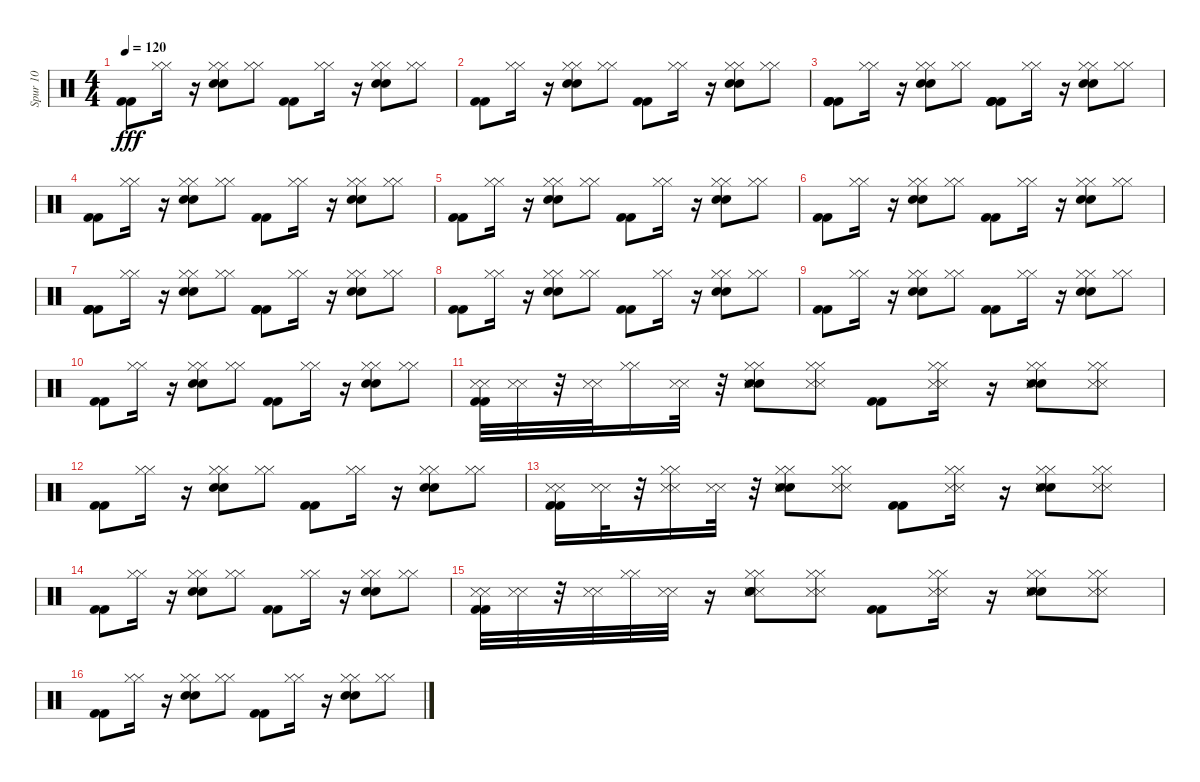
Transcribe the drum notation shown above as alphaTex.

\track ("Spur 10" "Spur 10") {instrument percussion}
\staff {score}
\articulation defaults
\ts (4 4)
\tempo 120
\clef neutral
\ks c
("Kick (hit) 2" "Kick (hit) 2").8{dy fff} ("Hi-Hat (closed)" "Hi-Hat (closed)").16 r.16 ("Hi-Hat (closed)" "Snare (hit) 2" "Hi-Hat (closed)" "Snare (hit) 2").8 ("Hi-Hat (closed)" "Hi-Hat (closed)").8 ("Kick (hit) 2" "Kick (hit) 2").8 ("Hi-Hat (closed)" "Hi-Hat (closed)").16 r.16 ("Snare (hit) 2" "Snare (hit) 2" "Hi-Hat (closed)" "Hi-Hat (closed)").8 ("Hi-Hat (closed)" "Hi-Hat (closed)").8 |
("Kick (hit) 2" "Kick (hit) 2").8 ("Hi-Hat (closed)" "Hi-Hat (closed)").16 r.16 ("Hi-Hat (closed)" "Snare (hit) 2" "Hi-Hat (closed)" "Snare (hit) 2").8 ("Hi-Hat (closed)" "Hi-Hat (closed)").8 ("Kick (hit) 2" "Kick (hit) 2").8 ("Hi-Hat (closed)" "Hi-Hat (closed)").16 r.16 ("Snare (hit) 2" "Snare (hit) 2" "Hi-Hat (closed)" "Hi-Hat (closed)").8 ("Hi-Hat (closed)" "Hi-Hat (closed)").8 |
("Kick (hit) 2" "Kick (hit) 2" "Kick (hit) 2" "Kick (hit) 2").8 ("Hi-Hat (closed)" "Hi-Hat (closed)").16 r.16 ("Hi-Hat (closed)" "Hi-Hat (closed)" "Snare (hit) 2" "Snare (hit) 2").8 ("Hi-Hat (closed)" "Hi-Hat (closed)").8 ("Kick (hit) 2" "Kick (hit) 2" "Kick (hit) 2" "Kick (hit) 2").8 ("Hi-Hat (closed)" "Hi-Hat (closed)").16 r.16 ("Hi-Hat (closed)" "Hi-Hat (closed)" "Snare (hit) 2" "Snare (hit) 2").8 ("Hi-Hat (closed)" "Hi-Hat (closed)").8 |
("Kick (hit) 2" "Kick (hit) 2").8 ("Hi-Hat (closed)" "Hi-Hat (closed)").16 r.16 ("Hi-Hat (closed)" "Snare (hit) 2" "Hi-Hat (closed)" "Snare (hit) 2").8 ("Hi-Hat (closed)" "Hi-Hat (closed)").8 ("Kick (hit) 2" "Kick (hit) 2").8 ("Hi-Hat (closed)" "Hi-Hat (closed)").16 r.16 ("Snare (hit) 2" "Hi-Hat (closed)" "Snare (hit) 2" "Hi-Hat (closed)").8 ("Hi-Hat (closed)" "Hi-Hat (closed)").8 |
("Kick (hit) 2" "Kick (hit) 2").8 ("Hi-Hat (closed)" "Hi-Hat (closed)").16 r.16 ("Hi-Hat (closed)" "Snare (hit) 2" "Hi-Hat (closed)" "Snare (hit) 2").8 ("Hi-Hat (closed)" "Hi-Hat (closed)").8 ("Kick (hit) 2" "Kick (hit) 2").8 ("Hi-Hat (closed)" "Hi-Hat (closed)").16 r.16 ("Hi-Hat (closed)" "Snare (hit) 2" "Hi-Hat (closed)" "Snare (hit) 2").8 ("Hi-Hat (closed)" "Hi-Hat (closed)").8 |
("Kick (hit) 2" "Kick (hit) 2").8 ("Hi-Hat (closed)" "Hi-Hat (closed)").16 r.16 ("Snare (hit) 2" "Snare (hit) 2" "Hi-Hat (closed)" "Hi-Hat (closed)").8 ("Hi-Hat (closed)" "Hi-Hat (closed)").8 ("Kick (hit) 2" "Kick (hit) 2").8 ("Hi-Hat (closed)" "Hi-Hat (closed)").16 r.16 ("Snare (hit) 2" "Hi-Hat (closed)" "Snare (hit) 2" "Hi-Hat (closed)").8 ("Hi-Hat (closed)" "Hi-Hat (closed)").8 |
("Kick (hit) 2" "Kick (hit) 2" "Kick (hit) 2" "Kick (hit) 2").8 ("Hi-Hat (closed)" "Hi-Hat (closed)").16 r.16 ("Hi-Hat (closed)" "Snare (hit) 2" "Hi-Hat (closed)" "Snare (hit) 2").8 ("Hi-Hat (closed)" "Hi-Hat (closed)").8 ("Kick (hit) 2" "Kick (hit) 2" "Kick (hit) 2" "Kick (hit) 2").8 ("Hi-Hat (closed)" "Hi-Hat (closed)").16 r.16 ("Snare (hit) 2" "Hi-Hat (closed)" "Snare (hit) 2" "Hi-Hat (closed)").8 ("Hi-Hat (closed)" "Hi-Hat (closed)").8 |
("Kick (hit) 2" "Kick (hit) 2").8 ("Hi-Hat (closed)" "Hi-Hat (closed)").16 r.16 ("Snare (hit) 2" "Hi-Hat (closed)" "Snare (hit) 2" "Hi-Hat (closed)").8 ("Hi-Hat (closed)" "Hi-Hat (closed)").8 ("Kick (hit) 2" "Kick (hit) 2").8 ("Hi-Hat (closed)" "Hi-Hat (closed)").16 r.16 ("Snare (hit) 2" "Snare (hit) 2" "Hi-Hat (closed)" "Hi-Hat (closed)").8 ("Hi-Hat (closed)" "Hi-Hat (closed)").8 |
("Kick (hit) 2" "Kick (hit) 2").8 ("Hi-Hat (closed)" "Hi-Hat (closed)").16 r.16 ("Snare (hit) 2" "Hi-Hat (closed)" "Snare (hit) 2" "Hi-Hat (closed)").8 ("Hi-Hat (closed)" "Hi-Hat (closed)").8 ("Kick (hit) 2" "Kick (hit) 2").8 ("Hi-Hat (closed)" "Hi-Hat (closed)").16 r.16 ("Hi-Hat (closed)" "Snare (hit) 2" "Hi-Hat (closed)" "Snare (hit) 2").8 ("Hi-Hat (closed)" "Hi-Hat (closed)").8 |
("Kick (hit) 2" "Kick (hit) 2").8 ("Hi-Hat (closed)" "Hi-Hat (closed)").16 r.16 ("Hi-Hat (closed)" "Snare (hit) 2" "Hi-Hat (closed)" "Snare (hit) 2").8 ("Hi-Hat (closed)" "Hi-Hat (closed)").8 ("Kick (hit) 2" "Kick (hit) 2").8 ("Hi-Hat (closed)" "Hi-Hat (closed)").16 r.16 ("Snare (hit) 2" "Hi-Hat (closed)" "Snare (hit) 2" "Hi-Hat (closed)").8 ("Hi-Hat (closed)" "Hi-Hat (closed)").8 |
("Snare (side stick) 3" "Snare (side stick) 3" "Kick (hit) 2" "Kick (hit) 2").32 ("Snare (side stick) 3" "Snare (side stick) 3").32 r.32 ("Snare (side stick) 3" "Snare (side stick) 3").32 ("Hi-Hat (closed)" "Hi-Hat (closed)").16 ("Snare (side stick) 3" "Snare (side stick) 3").32 r.32 ("Hi-Hat (closed)" "Snare (hit) 2" "Hi-Hat (closed)" "Snare (hit) 2" "Snare (side stick) 3" "Snare (side stick) 3").8 ("Hi-Hat (closed)" "Hi-Hat (closed)" "Snare (side stick) 3" "Snare (side stick) 3").8 ("Kick (hit) 2" "Kick (hit) 2").8 ("Snare (side stick) 3" "Hi-Hat (closed)" "Snare (side stick) 3" "Hi-Hat (closed)").16 r.16 ("Hi-Hat (closed)" "Hi-Hat (closed)" "Snare (hit) 2" "Snare (hit) 2" "Snare (side stick) 3" "Snare (side stick) 3").8 ("Hi-Hat (closed)" "Hi-Hat (closed)" "Snare (side stick) 3" "Snare (side stick) 3").8 |
("Kick (hit) 2" "Kick (hit) 2").8 ("Hi-Hat (closed)" "Hi-Hat (closed)").16 r.16 ("Snare (hit) 2" "Snare (hit) 2" "Hi-Hat (closed)" "Hi-Hat (closed)").8 ("Hi-Hat (closed)" "Hi-Hat (closed)").8 ("Kick (hit) 2" "Kick (hit) 2").8 ("Hi-Hat (closed)" "Hi-Hat (closed)").16 r.16 ("Snare (hit) 2" "Hi-Hat (closed)" "Snare (hit) 2" "Hi-Hat (closed)").8 ("Hi-Hat (closed)" "Hi-Hat (closed)").8 |
("Snare (side stick) 3" "Snare (side stick) 3" "Kick (hit) 2" "Kick (hit) 2").16 ("Snare (side stick) 3" "Snare (side stick) 3").32 r.32 ("Snare (side stick) 3" "Snare (side stick) 3" "Hi-Hat (closed)" "Hi-Hat (closed)").16 ("Snare (side stick) 3" "Snare (side stick) 3").32 r.32 ("Snare (hit) 2" "Hi-Hat (closed)" "Snare (hit) 2" "Hi-Hat (closed)" "Snare (side stick) 3" "Snare (side stick) 3").8 ("Hi-Hat (closed)" "Snare (side stick) 3" "Hi-Hat (closed)" "Snare (side stick) 3").8 ("Kick (hit) 2" "Kick (hit) 2").8 ("Hi-Hat (closed)" "Hi-Hat (closed)" "Snare (side stick) 3" "Snare (side stick) 3").16 r.16 ("Hi-Hat (closed)" "Hi-Hat (closed)" "Snare (hit) 2" "Snare (hit) 2" "Snare (side stick) 3" "Snare (side stick) 3").8 ("Hi-Hat (closed)" "Hi-Hat (closed)" "Snare (side stick) 3" "Snare (side stick) 3").8 |
("Kick (hit) 2" "Kick (hit) 2").8 ("Hi-Hat (closed)" "Hi-Hat (closed)").16 r.16 ("Snare (hit) 2" "Hi-Hat (closed)" "Snare (hit) 2" "Hi-Hat (closed)").8 ("Hi-Hat (closed)" "Hi-Hat (closed)").8 ("Kick (hit) 2" "Kick (hit) 2").8 ("Hi-Hat (closed)" "Hi-Hat (closed)").16 r.16 ("Hi-Hat (closed)" "Hi-Hat (closed)" "Snare (hit) 2" "Snare (hit) 2").8 ("Hi-Hat (closed)" "Hi-Hat (closed)").8 |
("Snare (side stick) 3" "Snare (side stick) 3" "Kick (hit) 2" "Kick (hit) 2").32 ("Snare (side stick) 3" "Snare (side stick) 3").32 r.32 ("Snare (side stick) 3" "Snare (side stick) 3").32 ("Hi-Hat (closed)" "Hi-Hat (closed)").32 ("Snare (side stick) 3" "Snare (side stick) 3").32 r.16 ("Snare (side stick) 3" "Snare (side stick) 3" "Hi-Hat (closed)" "Snare (hit) 2" "Hi-Hat (closed)" "Snare (hit) 2").8 ("Hi-Hat (closed)" "Hi-Hat (closed)" "Snare (side stick) 3" "Snare (side stick) 3").8 ("Kick (hit) 2" "Kick (hit) 2").8 ("Hi-Hat (closed)" "Hi-Hat (closed)" "Snare (side stick) 3" "Snare (side stick) 3").16 r.16 ("Hi-Hat (closed)" "Hi-Hat (closed)" "Snare (hit) 2" "Snare (hit) 2" "Snare (side stick) 3" "Snare (side stick) 3").8 ("Hi-Hat (closed)" "Hi-Hat (closed)" "Snare (side stick) 3" "Snare (side stick) 3").8 |
("Kick (hit) 2" "Kick (hit) 2").8 ("Hi-Hat (closed)" "Hi-Hat (closed)").16 r.16 ("Snare (hit) 2" "Hi-Hat (closed)" "Snare (hit) 2" "Hi-Hat (closed)").8 ("Hi-Hat (closed)" "Hi-Hat (closed)").8 ("Kick (hit) 2" "Kick (hit) 2").8 ("Hi-Hat (closed)" "Hi-Hat (closed)").16 r.16 ("Hi-Hat (closed)" "Hi-Hat (closed)" "Snare (hit) 2" "Snare (hit) 2").8 ("Hi-Hat (closed)" "Hi-Hat (closed)").8
